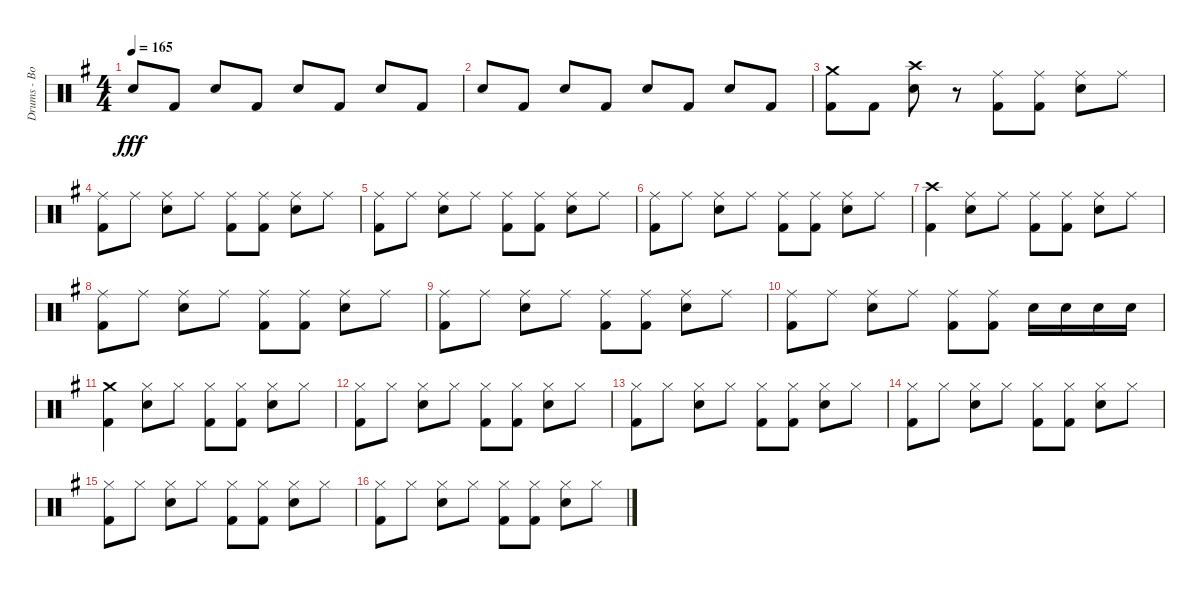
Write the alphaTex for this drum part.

\track ("Drums - Bobby Schayer" "Drums - Bo") {instrument percussion}
\staff {score}
\articulation defaults
\ts (4 4)
\tempo 165
\clef neutral
\ks g "Electric Snare (hit)".8{dy fff} "Kick (hit) 2".8 "Electric Snare (hit)".8 "Kick (hit) 2".8 "Electric Snare (hit)".8 "Kick (hit) 2".8 "Electric Snare (hit)".8 "Kick (hit) 2".8
|
"Electric Snare (hit)".8 "Kick (hit) 2".8 "Electric Snare (hit)".8 "Kick (hit) 2".8 "Electric Snare (hit)".8 "Kick (hit) 2".8 "Electric Snare (hit)".8 "Kick (hit) 2".8 |
("Crash medium (hit)" "Kick (hit) 2").8 "Kick (hit) 2".8 ("Crash high (hit)" "Electric Snare (hit)").8 r.8 ("Ride (middle)" "Kick (hit) 2").8 ("Ride (middle)" "Kick (hit) 2").8 ("Ride (middle)" "Electric Snare (hit)").8 "Ride (middle)".8 |
("Ride (middle)" "Kick (hit) 2").8 "Ride (middle)".8 ("Ride (middle)" "Electric Snare (hit)").8 "Ride (middle)".8 ("Ride (middle)" "Kick (hit) 2").8 ("Ride (middle)" "Kick (hit) 2").8 ("Ride (middle)" "Electric Snare (hit)").8 "Ride (middle)".8 |
("Ride (middle)" "Kick (hit) 2").8 "Ride (middle)".8 ("Ride (middle)" "Electric Snare (hit)").8 "Ride (middle)".8 ("Ride (middle)" "Kick (hit) 2").8 ("Ride (middle)" "Kick (hit) 2").8 ("Ride (middle)" "Electric Snare (hit)").8 "Ride (middle)".8 |
("Ride (middle)" "Kick (hit) 2").8 "Ride (middle)".8 ("Ride (middle)" "Electric Snare (hit)").8 "Ride (middle)".8 ("Ride (middle)" "Kick (hit) 2").8 ("Ride (middle)" "Kick (hit) 2").8 ("Ride (middle)" "Electric Snare (hit)").8 "Ride (middle)".8 |
("Crash high (hit)" "Kick (hit) 2").4 ("Ride (middle)" "Electric Snare (hit)").8 "Ride (middle)".8 ("Ride (middle)" "Kick (hit) 2").8 ("Ride (middle)" "Kick (hit) 2").8 ("Ride (middle)" "Electric Snare (hit)").8 "Ride (middle)".8 |
("Ride (middle)" "Kick (hit) 2").8 "Ride (middle)".8 ("Ride (middle)" "Electric Snare (hit)").8 "Ride (middle)".8 ("Ride (middle)" "Kick (hit) 2").8 ("Ride (middle)" "Kick (hit) 2").8 ("Ride (middle)" "Electric Snare (hit)").8 "Ride (middle)".8 |
("Ride (middle)" "Kick (hit) 2").8 "Ride (middle)".8 ("Ride (middle)" "Electric Snare (hit)").8 "Ride (middle)".8 ("Ride (middle)" "Kick (hit) 2").8 ("Ride (middle)" "Kick (hit) 2").8 ("Ride (middle)" "Electric Snare (hit)").8 "Ride (middle)".8 |
("Ride (middle)" "Kick (hit) 2").8 "Ride (middle)".8 ("Ride (middle)" "Electric Snare (hit)").8 "Ride (middle)".8 ("Ride (middle)" "Kick (hit) 2").8 ("Ride (middle)" "Kick (hit) 2").8 "Electric Snare (hit)".16 "Electric Snare (hit)".16 "Electric Snare (hit)".16 "Electric Snare (hit)".16 |
("Crash medium (hit)" "Kick (hit) 2").4 ("Hi-Hat (closed)" "Electric Snare (hit)").8 "Hi-Hat (closed)".8 ("Hi-Hat (closed)" "Kick (hit) 2").8 ("Hi-Hat (closed)" "Kick (hit) 2").8 ("Hi-Hat (closed)" "Electric Snare (hit)").8 "Hi-Hat (closed)".8 |
("Hi-Hat (closed)" "Kick (hit) 2").8 "Hi-Hat (closed)".8 ("Hi-Hat (closed)" "Electric Snare (hit)").8 "Hi-Hat (closed)".8 ("Hi-Hat (closed)" "Kick (hit) 2").8 ("Hi-Hat (closed)" "Kick (hit) 2").8 ("Hi-Hat (closed)" "Electric Snare (hit)").8 "Hi-Hat (closed)".8 |
("Hi-Hat (closed)" "Kick (hit) 2").8 "Hi-Hat (closed)".8 ("Hi-Hat (closed)" "Electric Snare (hit)").8 "Hi-Hat (closed)".8 ("Hi-Hat (closed)" "Kick (hit) 2").8 ("Hi-Hat (closed)" "Kick (hit) 2").8 ("Hi-Hat (closed)" "Electric Snare (hit)").8 "Hi-Hat (closed)".8 |
("Hi-Hat (closed)" "Kick (hit) 2").8 "Hi-Hat (closed)".8 ("Hi-Hat (closed)" "Electric Snare (hit)").8 "Hi-Hat (closed)".8 ("Hi-Hat (closed)" "Kick (hit) 2").8 ("Hi-Hat (closed)" "Kick (hit) 2").8 ("Hi-Hat (closed)" "Electric Snare (hit)").8 "Hi-Hat (closed)".8 |
("Hi-Hat (closed)" "Kick (hit) 2").8 "Hi-Hat (closed)".8 ("Hi-Hat (closed)" "Electric Snare (hit)").8 "Hi-Hat (closed)".8 ("Hi-Hat (closed)" "Kick (hit) 2").8 ("Hi-Hat (closed)" "Kick (hit) 2").8 ("Hi-Hat (closed)" "Electric Snare (hit)").8 "Hi-Hat (closed)".8 |
("Hi-Hat (closed)" "Kick (hit) 2").8 "Hi-Hat (closed)".8 ("Hi-Hat (closed)" "Electric Snare (hit)").8 "Hi-Hat (closed)".8 ("Hi-Hat (closed)" "Kick (hit) 2").8 ("Hi-Hat (closed)" "Kick (hit) 2").8 ("Hi-Hat (closed)" "Electric Snare (hit)").8 "Hi-Hat (closed)".8
